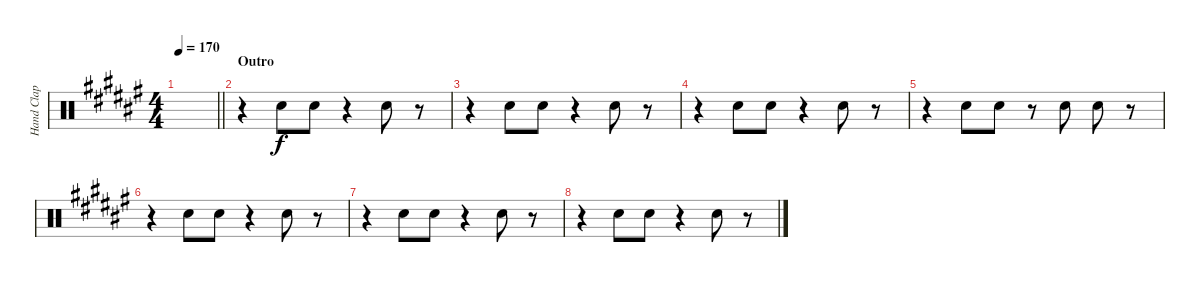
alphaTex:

\track ("Hand Clap" "Hand Clap") {instrument percussion}
\staff {score}
\articulation defaults
\ts (4 4)
\tempo 170
\clef neutral
\barLineRight lightlight
\ks f#
|
\section ("" "Outro")
r.4 "Hand Clap (hit)".8 "Hand Clap (hit)".8 r.4 "Hand Clap (hit)".8 r.8 |
r.4 "Hand Clap (hit)".8 "Hand Clap (hit)".8 r.4 "Hand Clap (hit)".8 r.8 |
r.4 "Hand Clap (hit)".8 "Hand Clap (hit)".8 r.4 "Hand Clap (hit)".8 r.8 |
r.4 "Hand Clap (hit)".8 "Hand Clap (hit)".8 r.8 "Hand Clap (hit)".8 "Hand Clap (hit)".8 r.8 |
r.4 "Hand Clap (hit)".8 "Hand Clap (hit)".8 r.4 "Hand Clap (hit)".8 r.8 |
r.4 "Hand Clap (hit)".8 "Hand Clap (hit)".8 r.4 "Hand Clap (hit)".8 r.8 |
r.4 "Hand Clap (hit)".8 "Hand Clap (hit)".8 r.4 "Hand Clap (hit)".8 r.8
